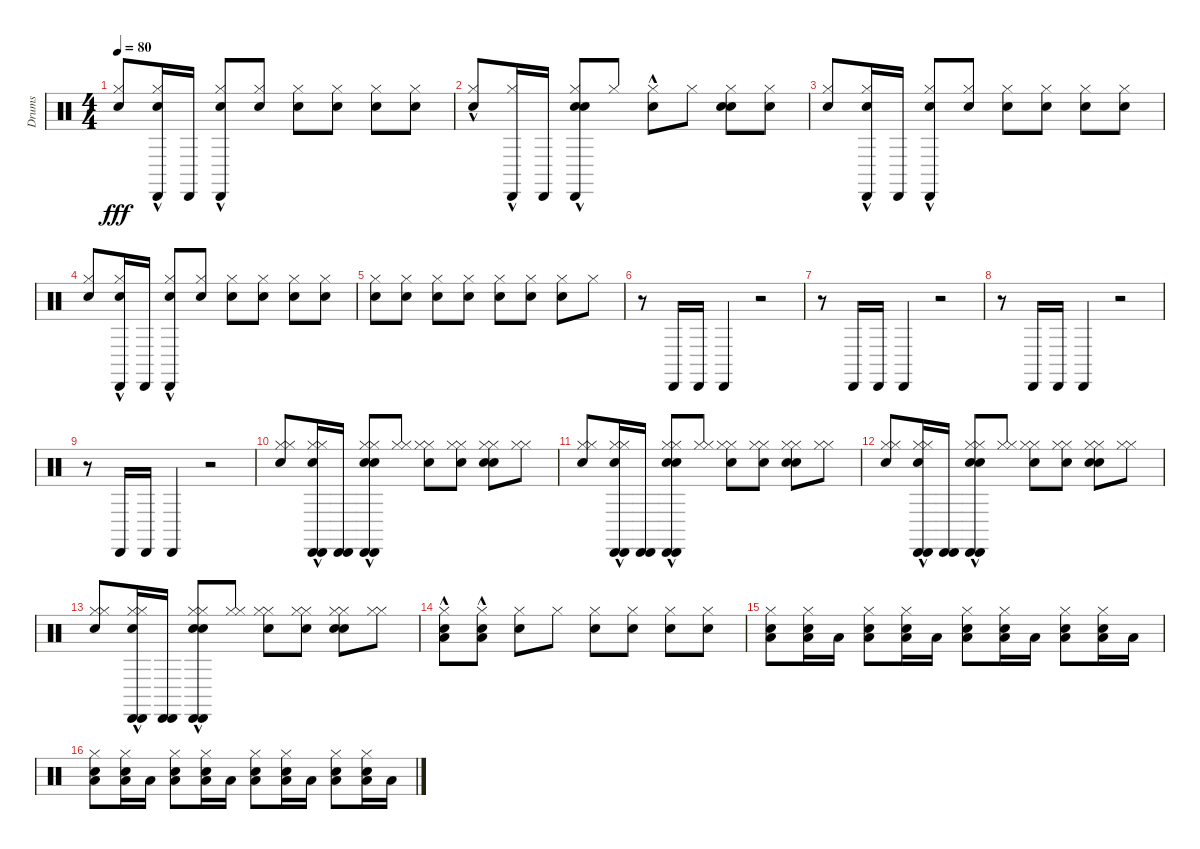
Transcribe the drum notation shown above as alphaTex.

\track ("Drums" "Drums") {instrument percussion}
\staff {score}
\articulation defaults
\ts (4 4)
\tempo 80
\clef neutral
\ks c
("Snare (hit)" "Hi-Hat (closed)").8{dy fff} ("Hi-Hat (closed)"{hac} "Snare (hit)"{hac} "Cabasa (hit)").16 "Cabasa (hit)".16 ("Hi-Hat (closed)"{hac} "Snare (hit) 2"{hac} "Cabasa (hit)"{hac}).8 ("Hi-Hat (closed)" "Snare (hit)").8 ("Hi-Hat (closed)" "Snare (hit)").8 ("Hi-Hat (closed)" "Snare (hit)").8 ("Hi-Hat (closed)" "Snare (hit) 2").8 ("Hi-Hat (closed)" "Snare (hit)").8 |
("Hi-Hat (closed)"{hac} "Snare (hit)"{hac}).8 ("Hi-Hat (closed)"{hac} "Cabasa (hit)").16 "Cabasa (hit)".16 ("Hi-Hat (closed)"{hac} "Snare (hit)"{hac} "Snare (hit) 2"{hac} "Cabasa (hit)"{hac}).8 "Hi-Hat (closed)".8 ("Hi-Hat (closed)"{hac} "Snare (hit)"{hac}).8 "Hi-Hat (closed)".8 ("Hi-Hat (closed)" "Snare (hit)" "Snare (hit) 2").8 ("Hi-Hat (closed)" "Snare (hit)").8 |
("Hi-Hat (closed)" "Snare (hit)").8 ("Hi-Hat (closed)"{hac} "Snare (hit)"{hac} "Cabasa (hit)").16 "Cabasa (hit)".16 ("Hi-Hat (closed)"{hac} "Snare (hit) 2"{hac} "Cabasa (hit)"{hac}).8 ("Hi-Hat (closed)" "Snare (hit)").8 ("Hi-Hat (closed)" "Snare (hit)").8 ("Hi-Hat (closed)" "Snare (hit)").8 ("Hi-Hat (closed)" "Snare (hit) 2").8 ("Hi-Hat (closed)" "Snare (hit)").8 |
("Hi-Hat (closed)" "Snare (hit)").8 ("Hi-Hat (closed)"{hac} "Snare (hit)"{hac} "Cabasa (hit)").16 "Cabasa (hit)".16 ("Hi-Hat (closed)"{hac} "Snare (hit) 2"{hac} "Cabasa (hit)"{hac}).8 ("Hi-Hat (closed)" "Snare (hit)").8 ("Hi-Hat (closed)" "Snare (hit)").8 ("Hi-Hat (closed)" "Snare (hit)").8 ("Hi-Hat (closed)" "Snare (hit) 2").8 ("Hi-Hat (closed)" "Snare (hit)").8 |
("Hi-Hat (closed)" "Snare (hit)").8 ("Hi-Hat (closed)" "Snare (hit)").8 ("Hi-Hat (closed)" "Snare (hit) 2").8 ("Hi-Hat (closed)" "Snare (hit)").8 ("Hi-Hat (closed)" "Snare (hit)").8 ("Hi-Hat (closed)" "Snare (hit)").8 ("Hi-Hat (closed)" "Snare (hit) 2").8 "Hi-Hat (closed)".8 |
r.8 "Cabasa (hit)".16 "Cabasa (hit)".16 "Cabasa (hit)".4 r.2 |
r.8 "Cabasa (hit)".16 "Cabasa (hit)".16 "Cabasa (hit)".4 r.2 |
r.8 "Cabasa (hit)".16 "Cabasa (hit)".16 "Cabasa (hit)".4 r.2 |
r.8 "Cabasa (hit)".16 "Cabasa (hit)".16 "Cabasa (hit)".4 r.2 |
("Hi-Hat (closed)" "Hi-Hat (closed)" "Snare (hit)").8 ("Cabasa (hit)" "Hi-Hat (closed)"{hac} "Cabasa (hit)" "Hi-Hat (closed)"{hac} "Snare (hit)"{hac}).16 ("Cabasa (hit)" "Cabasa (hit)").16 ("Cabasa (hit)"{hac} "Hi-Hat (closed)"{hac} "Snare (hit) 2"{hac} "Cabasa (hit)"{hac} "Hi-Hat (closed)"{hac} "Snare (hit) 2"{hac}).8 ("Hi-Hat (closed)" "Hi-Hat (closed)").8 ("Hi-Hat (closed)" "Hi-Hat (closed)" "Snare (hit)").8 ("Hi-Hat (closed)" "Hi-Hat (closed)" "Snare (hit)").8 ("Hi-Hat (closed)" "Snare (hit) 2" "Hi-Hat (closed)" "Snare (hit) 2").8 ("Hi-Hat (closed)" "Hi-Hat (closed)").8 |
("Hi-Hat (closed)" "Hi-Hat (closed)" "Snare (hit)").8 ("Cabasa (hit)" "Hi-Hat (closed)"{hac} "Cabasa (hit)" "Hi-Hat (closed)"{hac} "Snare (hit)"{hac}).16 ("Cabasa (hit)" "Cabasa (hit)").16 ("Cabasa (hit)"{hac} "Hi-Hat (closed)"{hac} "Snare (hit) 2"{hac} "Cabasa (hit)"{hac} "Hi-Hat (closed)"{hac} "Snare (hit) 2"{hac}).8 ("Hi-Hat (closed)" "Hi-Hat (closed)").8 ("Hi-Hat (closed)" "Hi-Hat (closed)" "Snare (hit)").8 ("Hi-Hat (closed)" "Hi-Hat (closed)" "Snare (hit)").8 ("Hi-Hat (closed)" "Snare (hit) 2" "Hi-Hat (closed)" "Snare (hit) 2").8 ("Hi-Hat (closed)" "Hi-Hat (closed)").8 |
("Hi-Hat (closed)" "Hi-Hat (closed)" "Snare (hit)").8 ("Cabasa (hit)" "Hi-Hat (closed)"{hac} "Cabasa (hit)" "Hi-Hat (closed)"{hac} "Snare (hit)"{hac}).16 ("Cabasa (hit)" "Cabasa (hit)").16 ("Cabasa (hit)"{hac} "Hi-Hat (closed)"{hac} "Snare (hit) 2"{hac} "Cabasa (hit)"{hac} "Hi-Hat (closed)"{hac} "Snare (hit) 2"{hac}).8 ("Hi-Hat (closed)" "Hi-Hat (closed)").8 ("Hi-Hat (closed)" "Hi-Hat (closed)" "Snare (hit)").8 ("Hi-Hat (closed)" "Hi-Hat (closed)" "Snare (hit)").8 ("Hi-Hat (closed)" "Snare (hit) 2" "Hi-Hat (closed)" "Snare (hit) 2").8 ("Hi-Hat (closed)" "Hi-Hat (closed)").8 |
("Hi-Hat (closed)" "Hi-Hat (closed)" "Snare (hit)").8 ("Cabasa (hit)" "Hi-Hat (closed)"{hac} "Cabasa (hit)" "Hi-Hat (closed)"{hac} "Snare (hit)"{hac}).16 ("Cabasa (hit)" "Cabasa (hit)").16 ("Cabasa (hit)"{hac} "Hi-Hat (closed)"{hac} "Snare (hit) 2"{hac} "Cabasa (hit)"{hac} "Hi-Hat (closed)"{hac} "Snare (hit) 2"{hac}).8 ("Hi-Hat (closed)" "Hi-Hat (closed)").8 ("Hi-Hat (closed)" "Hi-Hat (closed)" "Snare (hit)").8 ("Hi-Hat (closed)" "Hi-Hat (closed)" "Snare (hit)").8 ("Hi-Hat (closed)" "Snare (hit) 2" "Hi-Hat (closed)" "Snare (hit) 2").8 ("Hi-Hat (closed)" "Hi-Hat (closed)").8 |
("Hi-Hat (closed)"{hac} "Snare (hit)"{hac} "Low Floor Tom (hit)").8 ("Hi-Hat (closed)"{hac} "Snare (hit)"{hac} "Low Floor Tom (hit)"{hac}).8 ("Hi-Hat (closed)" "Snare (hit) 2").8 "Hi-Hat (closed)".8 ("Hi-Hat (closed)" "Snare (hit)").8 ("Hi-Hat (closed)" "Snare (hit)").8 ("Hi-Hat (closed)" "Snare (hit) 2").8 ("Hi-Hat (closed)" "Snare (hit)").8 |
("Hi-Hat (closed)" "Snare (hit)" "Low Floor Tom (hit)").8 ("Hi-Hat (closed)" "Snare (hit)" "Low Floor Tom (hit)").16 "Low Floor Tom (hit)".16 ("Hi-Hat (closed)" "Snare (hit) 2" "Low Floor Tom (hit)").8 ("Hi-Hat (closed)" "Snare (hit)" "Low Floor Tom (hit)").16 "Low Floor Tom (hit)".16 ("Hi-Hat (closed)" "Snare (hit)" "Low Floor Tom (hit)").8 ("Hi-Hat (closed)" "Snare (hit)" "Low Floor Tom (hit)").16 "Low Floor Tom (hit)".16 ("Hi-Hat (closed)" "Snare (hit) 2" "Low Floor Tom (hit)").8 ("Hi-Hat (closed)" "Snare (hit)" "Low Floor Tom (hit)").16 "Low Floor Tom (hit)".16 |
("Hi-Hat (closed)" "Snare (hit)" "Low Floor Tom (hit)").8 ("Hi-Hat (closed)" "Snare (hit)" "Low Floor Tom (hit)").16 "Low Floor Tom (hit)".16 ("Hi-Hat (closed)" "Snare (hit) 2" "Low Floor Tom (hit)").8 ("Hi-Hat (closed)" "Snare (hit)" "Low Floor Tom (hit)").16 "Low Floor Tom (hit)".16 ("Hi-Hat (closed)" "Snare (hit)" "Low Floor Tom (hit)").8 ("Hi-Hat (closed)" "Snare (hit)" "Low Floor Tom (hit)").16 "Low Floor Tom (hit)".16 ("Hi-Hat (closed)" "Snare (hit) 2" "Low Floor Tom (hit)").8 ("Hi-Hat (closed)" "Snare (hit)" "Low Floor Tom (hit)").16 "Low Floor Tom (hit)".16
